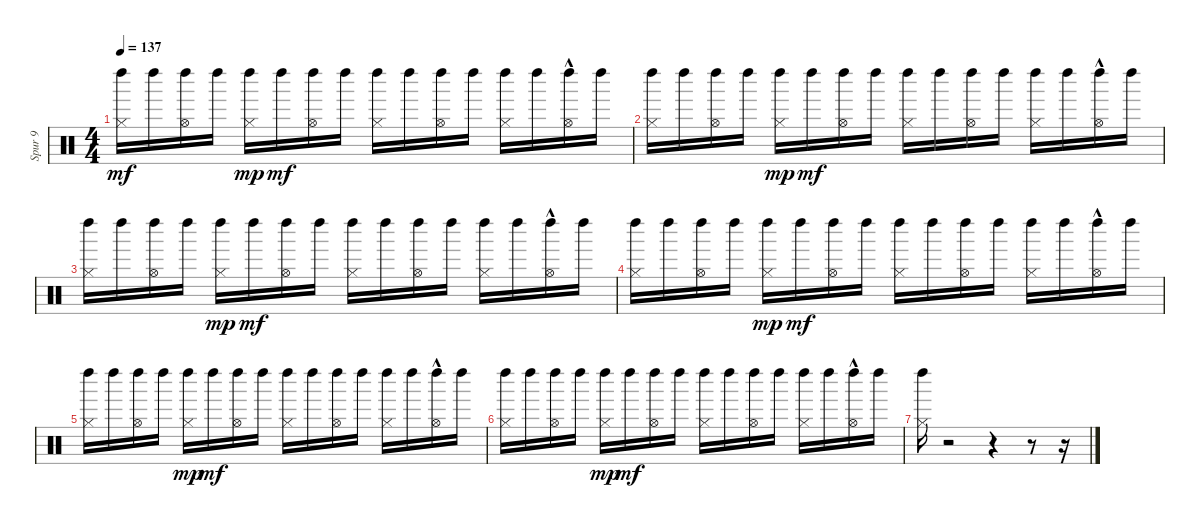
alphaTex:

\track ("Spur 9" "Spur 9") {instrument percussion}
\staff {score}
\articulation defaults
\ts (4 4)
\tempo 137
\clef neutral
\ks c
("Hi-Hat (closed)" "Left Maraca (hit)").16{dy mf} "Left Maraca (hit)".16 ("Hi-Hat (open)" "Left Maraca (hit)").16 "Left Maraca (hit)".16 ("Hi-Hat (closed)" "Left Maraca (hit)").16{dy mp} "Left Maraca (hit)".16{dy mf} ("Hi-Hat (open)" "Left Maraca (hit)").16 "Left Maraca (hit)".16 ("Hi-Hat (closed)" "Left Maraca (hit)").16 "Left Maraca (hit)".16 ("Hi-Hat (open)" "Left Maraca (hit)").16 "Left Maraca (hit)".16 ("Hi-Hat (closed)" "Left Maraca (hit)").16 "Left Maraca (hit)".16 ("Hi-Hat (open)"{hac} "Left Maraca (hit)").16 "Left Maraca (hit)".16 |
("Hi-Hat (closed)" "Left Maraca (hit)").16 "Left Maraca (hit)".16 ("Hi-Hat (open)" "Left Maraca (hit)").16 "Left Maraca (hit)".16 ("Hi-Hat (closed)" "Left Maraca (hit)").16{dy mp} "Left Maraca (hit)".16{dy mf} ("Hi-Hat (open)" "Left Maraca (hit)").16 "Left Maraca (hit)".16 ("Hi-Hat (closed)" "Left Maraca (hit)").16 "Left Maraca (hit)".16 ("Hi-Hat (open)" "Left Maraca (hit)").16 "Left Maraca (hit)".16 ("Hi-Hat (closed)" "Left Maraca (hit)").16 "Left Maraca (hit)".16 ("Hi-Hat (open)"{hac} "Left Maraca (hit)").16 "Left Maraca (hit)".16 |
("Hi-Hat (closed)" "Left Maraca (hit)").16 "Left Maraca (hit)".16 ("Hi-Hat (open)" "Left Maraca (hit)").16 "Left Maraca (hit)".16 ("Hi-Hat (closed)" "Left Maraca (hit)").16{dy mp} "Left Maraca (hit)".16{dy mf} ("Hi-Hat (open)" "Left Maraca (hit)").16 "Left Maraca (hit)".16 ("Hi-Hat (closed)" "Left Maraca (hit)").16 "Left Maraca (hit)".16 ("Hi-Hat (open)" "Left Maraca (hit)").16 "Left Maraca (hit)".16 ("Hi-Hat (closed)" "Left Maraca (hit)").16 "Left Maraca (hit)".16 ("Hi-Hat (open)"{hac} "Left Maraca (hit)").16 "Left Maraca (hit)".16 |
("Hi-Hat (closed)" "Left Maraca (hit)").16 "Left Maraca (hit)".16 ("Hi-Hat (open)" "Left Maraca (hit)").16 "Left Maraca (hit)".16 ("Hi-Hat (closed)" "Left Maraca (hit)").16{dy mp} "Left Maraca (hit)".16{dy mf} ("Hi-Hat (open)" "Left Maraca (hit)").16 "Left Maraca (hit)".16 ("Hi-Hat (closed)" "Left Maraca (hit)").16 "Left Maraca (hit)".16 ("Hi-Hat (open)" "Left Maraca (hit)").16 "Left Maraca (hit)".16 ("Hi-Hat (closed)" "Left Maraca (hit)").16 "Left Maraca (hit)".16 ("Hi-Hat (open)"{hac} "Left Maraca (hit)").16 "Left Maraca (hit)".16 |
("Hi-Hat (closed)" "Left Maraca (hit)").16 "Left Maraca (hit)".16 ("Hi-Hat (open)" "Left Maraca (hit)").16 "Left Maraca (hit)".16 ("Hi-Hat (closed)" "Left Maraca (hit)").16{dy mp} "Left Maraca (hit)".16{dy mf} ("Hi-Hat (open)" "Left Maraca (hit)").16 "Left Maraca (hit)".16 ("Hi-Hat (closed)" "Left Maraca (hit)").16 "Left Maraca (hit)".16 ("Hi-Hat (open)" "Left Maraca (hit)").16 "Left Maraca (hit)".16 ("Hi-Hat (closed)" "Left Maraca (hit)").16 "Left Maraca (hit)".16 ("Hi-Hat (open)"{hac} "Left Maraca (hit)").16 "Left Maraca (hit)".16 |
("Hi-Hat (closed)" "Left Maraca (hit)").16 "Left Maraca (hit)".16 ("Hi-Hat (open)" "Left Maraca (hit)").16 "Left Maraca (hit)".16 ("Hi-Hat (closed)" "Left Maraca (hit)").16{dy mp} "Left Maraca (hit)".16{dy mf} ("Hi-Hat (open)" "Left Maraca (hit)").16 "Left Maraca (hit)".16 ("Hi-Hat (closed)" "Left Maraca (hit)").16 "Left Maraca (hit)".16 ("Hi-Hat (open)" "Left Maraca (hit)").16 "Left Maraca (hit)".16 ("Hi-Hat (closed)" "Left Maraca (hit)").16 "Left Maraca (hit)".16 ("Hi-Hat (open)"{hac} "Left Maraca (hit)").16 "Left Maraca (hit)".16 |
("Hi-Hat (closed)" "Left Maraca (hit)").16 r.2 r.4 r.8 r.16
